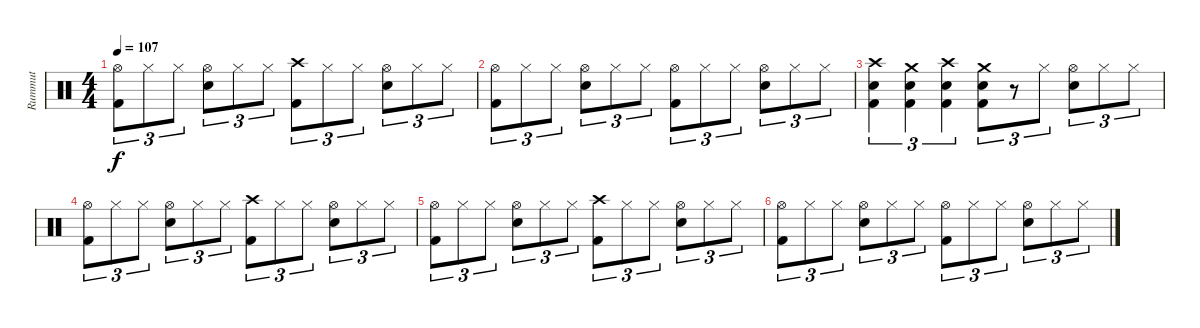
\track ("Rummut" "Rummut") {instrument percussion}
\staff {score}
\articulation defaults
\ts (4 4)
\tempo 107
\clef neutral
\ks c
("Hi-Hat (open)" "Kick (hit) 2").8{tu (3 2) dy f} "Hi-Hat (closed)".8{tu (3 2)} "Hi-Hat (closed)".8{tu (3 2)} ("Hi-Hat (open)" "Snare (hit) 2").8{tu (3 2)} "Hi-Hat (closed)".8{tu (3 2)} "Hi-Hat (closed)".8{tu (3 2)} ("Crash high (hit)" "Kick (hit) 2").8{tu (3 2)} "Hi-Hat (closed)".8{tu (3 2)} "Hi-Hat (closed)".8{tu (3 2)} ("Hi-Hat (open)" "Snare (hit) 2").8{tu (3 2)} "Hi-Hat (closed)".8{tu (3 2)} "Hi-Hat (closed)".8{tu (3 2)} |
("Hi-Hat (open)" "Kick (hit) 2").8{tu (3 2)} "Hi-Hat (closed)".8{tu (3 2)} "Hi-Hat (closed)".8{tu (3 2)} ("Hi-Hat (open)" "Snare (hit) 2").8{tu (3 2)} "Hi-Hat (closed)".8{tu (3 2)} "Hi-Hat (closed)".8{tu (3 2)} ("Hi-Hat (open)" "Kick (hit) 2").8{tu (3 2)} "Hi-Hat (closed)".8{tu (3 2)} "Hi-Hat (closed)".8{tu (3 2)} ("Hi-Hat (open)" "Snare (hit) 2").8{tu (3 2)} "Hi-Hat (closed)".8{tu (3 2)} "Hi-Hat (closed)".8{tu (3 2)} |
("Crash high (hit)" "Snare (hit) 2" "Kick (hit) 2").4{tu (3 2) volume 1} ("Crash medium (hit)" "Snare (hit) 2" "Kick (hit) 2").4{tu (3 2)} ("Crash high (hit)" "Snare (hit) 2" "Kick (hit) 2").4{tu (3 2)} ("Crash medium (hit)" "Snare (hit) 2" "Kick (hit) 2").8{tu (3 2)} r.8{tu (3 2)} "Hi-Hat (closed)".8{tu (3 2)} ("Hi-Hat (open)" "Snare (hit) 2").8{tu (3 2)} "Hi-Hat (closed)".8{tu (3 2)} "Hi-Hat (closed)".8{tu (3 2)} |
("Hi-Hat (open)" "Kick (hit) 2").8{tu (3 2)} "Hi-Hat (closed)".8{tu (3 2)} "Hi-Hat (closed)".8{tu (3 2)} ("Hi-Hat (open)" "Snare (hit) 2").8{tu (3 2)} "Hi-Hat (closed)".8{tu (3 2)} "Hi-Hat (closed)".8{tu (3 2)} ("Crash high (hit)" "Kick (hit) 2").8{tu (3 2)} "Hi-Hat (closed)".8{tu (3 2)} "Hi-Hat (closed)".8{tu (3 2)} ("Hi-Hat (open)" "Snare (hit) 2").8{tu (3 2)} "Hi-Hat (closed)".8{tu (3 2)} "Hi-Hat (closed)".8{tu (3 2)} |
("Hi-Hat (open)" "Kick (hit) 2").8{tu (3 2)} "Hi-Hat (closed)".8{tu (3 2)} "Hi-Hat (closed)".8{tu (3 2)} ("Hi-Hat (open)" "Snare (hit) 2").8{tu (3 2)} "Hi-Hat (closed)".8{tu (3 2)} "Hi-Hat (closed)".8{tu (3 2)} ("Crash high (hit)" "Kick (hit) 2").8{tu (3 2)} "Hi-Hat (closed)".8{tu (3 2)} "Hi-Hat (closed)".8{tu (3 2)} ("Hi-Hat (open)" "Snare (hit) 2").8{tu (3 2)} "Hi-Hat (closed)".8{tu (3 2)} "Hi-Hat (closed)".8{tu (3 2)} |
("Hi-Hat (open)" "Kick (hit) 2").8{tu (3 2)} "Hi-Hat (closed)".8{tu (3 2)} "Hi-Hat (closed)".8{tu (3 2)} ("Hi-Hat (open)" "Snare (hit) 2").8{tu (3 2)} "Hi-Hat (closed)".8{tu (3 2)} "Hi-Hat (closed)".8{tu (3 2)} ("Hi-Hat (open)" "Kick (hit) 2").8{tu (3 2)} "Hi-Hat (closed)".8{tu (3 2)} "Hi-Hat (closed)".8{tu (3 2)} ("Hi-Hat (open)" "Snare (hit) 2").8{tu (3 2)} "Hi-Hat (closed)".8{tu (3 2)} "Hi-Hat (closed)".8{tu (3 2)}
